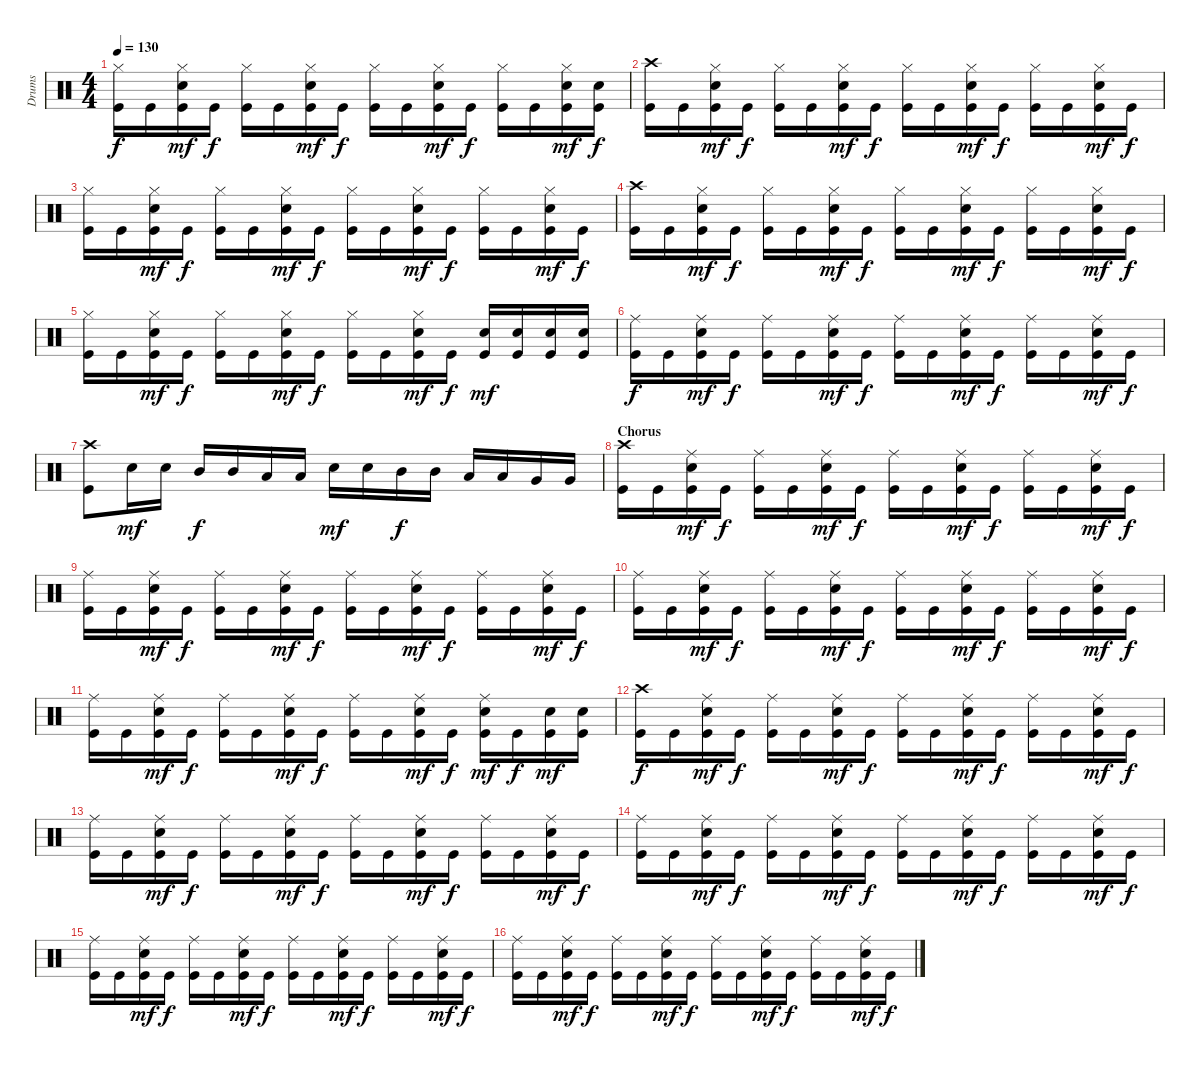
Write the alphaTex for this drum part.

\track ("Drums" "Drums") {instrument percussion}
\staff {score}
\articulation defaults
\ts (4 4)
\tempo 130
\clef neutral
\ks c
("Hi-Hat (closed)" "Kick (hit)").16{dy f} "Kick (hit)".16 ("Hi-Hat (closed)" "Snare (hit) 2" "Kick (hit)").16{dy mf} "Kick (hit)".16{dy f} ("Hi-Hat (closed)" "Kick (hit)").16 "Kick (hit)".16 ("Hi-Hat (closed)" "Snare (hit) 2" "Kick (hit)").16{dy mf} "Kick (hit)".16{dy f} ("Hi-Hat (closed)" "Kick (hit)").16 "Kick (hit)".16 ("Hi-Hat (closed)" "Snare (hit) 2" "Kick (hit)").16{dy mf} "Kick (hit)".16{dy f} ("Hi-Hat (closed)" "Kick (hit)").16 "Kick (hit)".16 ("Hi-Hat (closed)" "Snare (hit) 2" "Kick (hit)").16{dy mf} ("Snare (hit) 2" "Kick (hit)").16{dy f} |
("Crash high (hit)" "Kick (hit)").16 "Kick (hit)".16 ("Hi-Hat (closed)" "Snare (hit) 2" "Kick (hit)").16{dy mf} "Kick (hit)".16{dy f} ("Hi-Hat (closed)" "Kick (hit)").16 "Kick (hit)".16 ("Hi-Hat (closed)" "Snare (hit) 2" "Kick (hit)").16{dy mf} "Kick (hit)".16{dy f} ("Hi-Hat (closed)" "Kick (hit)").16 "Kick (hit)".16 ("Hi-Hat (closed)" "Snare (hit) 2" "Kick (hit)").16{dy mf} "Kick (hit)".16{dy f} ("Hi-Hat (closed)" "Kick (hit)").16 "Kick (hit)".16 ("Hi-Hat (closed)" "Snare (hit) 2" "Kick (hit)").16{dy mf} "Kick (hit)".16{dy f} |
("Hi-Hat (closed)" "Kick (hit)").16 "Kick (hit)".16 ("Hi-Hat (closed)" "Snare (hit) 2" "Kick (hit)").16{dy mf} "Kick (hit)".16{dy f} ("Hi-Hat (closed)" "Kick (hit)").16 "Kick (hit)".16 ("Hi-Hat (closed)" "Snare (hit) 2" "Kick (hit)").16{dy mf} "Kick (hit)".16{dy f} ("Hi-Hat (closed)" "Kick (hit)").16 "Kick (hit)".16 ("Hi-Hat (closed)" "Snare (hit) 2" "Kick (hit)").16{dy mf} "Kick (hit)".16{dy f} ("Hi-Hat (closed)" "Kick (hit)").16 "Kick (hit)".16 ("Hi-Hat (closed)" "Snare (hit) 2" "Kick (hit)").16{dy mf} "Kick (hit)".16{dy f} |
("Crash high (hit)" "Kick (hit)").16 "Kick (hit)".16 ("Hi-Hat (closed)" "Snare (hit) 2" "Kick (hit)").16{dy mf} "Kick (hit)".16{dy f} ("Hi-Hat (closed)" "Kick (hit)").16 "Kick (hit)".16 ("Hi-Hat (closed)" "Snare (hit) 2" "Kick (hit)").16{dy mf} "Kick (hit)".16{dy f} ("Hi-Hat (closed)" "Kick (hit)").16 "Kick (hit)".16 ("Hi-Hat (closed)" "Snare (hit) 2" "Kick (hit)").16{dy mf} "Kick (hit)".16{dy f} ("Hi-Hat (closed)" "Kick (hit)").16 "Kick (hit)".16 ("Hi-Hat (closed)" "Snare (hit) 2" "Kick (hit)").16{dy mf} "Kick (hit)".16{dy f} |
("Hi-Hat (closed)" "Kick (hit)").16 "Kick (hit)".16 ("Hi-Hat (closed)" "Snare (hit) 2" "Kick (hit)").16{dy mf} "Kick (hit)".16{dy f} ("Hi-Hat (closed)" "Kick (hit)").16 "Kick (hit)".16 ("Hi-Hat (closed)" "Snare (hit) 2" "Kick (hit)").16{dy mf} "Kick (hit)".16{dy f} ("Hi-Hat (closed)" "Kick (hit)").16 "Kick (hit)".16 ("Hi-Hat (closed)" "Snare (hit) 2" "Kick (hit)").16{dy mf} "Kick (hit)".16{dy f} ("Snare (hit) 2" "Kick (hit)").16{dy mf} ("Snare (hit) 2" "Kick (hit)").16 ("Snare (hit) 2" "Kick (hit)").16 ("Snare (hit) 2" "Kick (hit)").16 |
("Ride (middle)" "Kick (hit)").16{dy f} "Kick (hit)".16 ("Ride (middle)" "Snare (hit) 2" "Kick (hit)").16{dy mf} "Kick (hit)".16{dy f} ("Ride (middle)" "Kick (hit)").16 "Kick (hit)".16 ("Ride (middle)" "Snare (hit) 2" "Kick (hit)").16{dy mf} "Kick (hit)".16{dy f} ("Ride (middle)" "Kick (hit)").16 "Kick (hit)".16 ("Ride (middle)" "Snare (hit) 2" "Kick (hit)").16{dy mf} "Kick (hit)".16{dy f} ("Ride (middle)" "Kick (hit)").16 "Kick (hit)".16 ("Ride (middle)" "Snare (hit) 2" "Kick (hit)").16{dy mf} "Kick (hit)".16{dy f} |
("Crash high (hit)" "Kick (hit)").8 "Snare (hit) 2".16{dy mf} "Snare (hit) 2".16 "Mid Tom (hit)".16{dy f} "Mid Tom (hit)".16 "Low Tom (hit)".16 "Low Tom (hit)".16 "Snare (hit) 2".16{dy mf} "Snare (hit) 2".16 "Mid Tom (hit)".16{dy f} "Mid Tom (hit)".16 "Low Tom (hit)".16 "Low Tom (hit)".16 "Very Low Tom (hit)".16 "Very Low Tom (hit)".16 |
\section ("" "Chorus")
("Crash high (hit)" "Kick (hit)").16 "Kick (hit)".16 ("Ride (middle)" "Snare (hit) 2" "Kick (hit)").16{dy mf} "Kick (hit)".16{dy f} ("Ride (middle)" "Kick (hit)").16 "Kick (hit)".16 ("Ride (middle)" "Snare (hit) 2" "Kick (hit)").16{dy mf} "Kick (hit)".16{dy f} ("Ride (middle)" "Kick (hit)").16 "Kick (hit)".16 ("Ride (middle)" "Snare (hit) 2" "Kick (hit)").16{dy mf} "Kick (hit)".16{dy f} ("Ride (middle)" "Kick (hit)").16 "Kick (hit)".16 ("Ride (middle)" "Snare (hit) 2" "Kick (hit)").16{dy mf} "Kick (hit)".16{dy f} |
("Ride (middle)" "Kick (hit)").16 "Kick (hit)".16 ("Ride (middle)" "Snare (hit) 2" "Kick (hit)").16{dy mf} "Kick (hit)".16{dy f} ("Ride (middle)" "Kick (hit)").16 "Kick (hit)".16 ("Ride (middle)" "Snare (hit) 2" "Kick (hit)").16{dy mf} "Kick (hit)".16{dy f} ("Ride (middle)" "Kick (hit)").16 "Kick (hit)".16 ("Ride (middle)" "Snare (hit) 2" "Kick (hit)").16{dy mf} "Kick (hit)".16{dy f} ("Ride (middle)" "Kick (hit)").16 "Kick (hit)".16 ("Ride (middle)" "Snare (hit) 2" "Kick (hit)").16{dy mf} "Kick (hit)".16{dy f} |
("Ride (middle)" "Kick (hit)").16 "Kick (hit)".16 ("Ride (middle)" "Snare (hit) 2" "Kick (hit)").16{dy mf} "Kick (hit)".16{dy f} ("Ride (middle)" "Kick (hit)").16 "Kick (hit)".16 ("Ride (middle)" "Snare (hit) 2" "Kick (hit)").16{dy mf} "Kick (hit)".16{dy f} ("Ride (middle)" "Kick (hit)").16 "Kick (hit)".16 ("Ride (middle)" "Snare (hit) 2" "Kick (hit)").16{dy mf} "Kick (hit)".16{dy f} ("Ride (middle)" "Kick (hit)").16 "Kick (hit)".16 ("Ride (middle)" "Snare (hit) 2" "Kick (hit)").16{dy mf} "Kick (hit)".16{dy f} |
("Ride (middle)" "Kick (hit)").16 "Kick (hit)".16 ("Ride (middle)" "Snare (hit) 2" "Kick (hit)").16{dy mf} "Kick (hit)".16{dy f} ("Ride (middle)" "Kick (hit)").16 "Kick (hit)".16 ("Ride (middle)" "Snare (hit) 2" "Kick (hit)").16{dy mf} "Kick (hit)".16{dy f} ("Ride (middle)" "Kick (hit)").16 "Kick (hit)".16 ("Ride (middle)" "Snare (hit) 2" "Kick (hit)").16{dy mf} "Kick (hit)".16{dy f} ("Ride (middle)" "Snare (hit) 2" "Kick (hit)").16{dy mf} "Kick (hit)".16{dy f} ("Snare (hit) 2" "Kick (hit)").16{dy mf} ("Snare (hit) 2" "Kick (hit)").16 |
("Crash high (hit)" "Kick (hit)").16{dy f} "Kick (hit)".16 ("Ride (middle)" "Snare (hit) 2" "Kick (hit)").16{dy mf} "Kick (hit)".16{dy f} ("Ride (middle)" "Kick (hit)").16 "Kick (hit)".16 ("Ride (middle)" "Snare (hit) 2" "Kick (hit)").16{dy mf} "Kick (hit)".16{dy f} ("Ride (middle)" "Kick (hit)").16 "Kick (hit)".16 ("Ride (middle)" "Snare (hit) 2" "Kick (hit)").16{dy mf} "Kick (hit)".16{dy f} ("Ride (middle)" "Kick (hit)").16 "Kick (hit)".16 ("Ride (middle)" "Snare (hit) 2" "Kick (hit)").16{dy mf} "Kick (hit)".16{dy f} |
("Ride (middle)" "Kick (hit)").16 "Kick (hit)".16 ("Ride (middle)" "Snare (hit) 2" "Kick (hit)").16{dy mf} "Kick (hit)".16{dy f} ("Ride (middle)" "Kick (hit)").16 "Kick (hit)".16 ("Ride (middle)" "Snare (hit) 2" "Kick (hit)").16{dy mf} "Kick (hit)".16{dy f} ("Ride (middle)" "Kick (hit)").16 "Kick (hit)".16 ("Ride (middle)" "Snare (hit) 2" "Kick (hit)").16{dy mf} "Kick (hit)".16{dy f} ("Ride (middle)" "Kick (hit)").16 "Kick (hit)".16 ("Ride (middle)" "Snare (hit) 2" "Kick (hit)").16{dy mf} "Kick (hit)".16{dy f} |
("Ride (middle)" "Kick (hit)").16 "Kick (hit)".16 ("Ride (middle)" "Snare (hit) 2" "Kick (hit)").16{dy mf} "Kick (hit)".16{dy f} ("Ride (middle)" "Kick (hit)").16 "Kick (hit)".16 ("Ride (middle)" "Snare (hit) 2" "Kick (hit)").16{dy mf} "Kick (hit)".16{dy f} ("Ride (middle)" "Kick (hit)").16 "Kick (hit)".16 ("Ride (middle)" "Snare (hit) 2" "Kick (hit)").16{dy mf} "Kick (hit)".16{dy f} ("Ride (middle)" "Kick (hit)").16 "Kick (hit)".16 ("Ride (middle)" "Snare (hit) 2" "Kick (hit)").16{dy mf} "Kick (hit)".16{dy f} |
("Ride (middle)" "Kick (hit)").16 "Kick (hit)".16 ("Ride (middle)" "Snare (hit) 2" "Kick (hit)").16{dy mf} "Kick (hit)".16{dy f} ("Ride (middle)" "Kick (hit)").16 "Kick (hit)".16 ("Ride (middle)" "Snare (hit) 2" "Kick (hit)").16{dy mf} "Kick (hit)".16{dy f} ("Ride (middle)" "Kick (hit)").16 "Kick (hit)".16 ("Ride (middle)" "Snare (hit) 2" "Kick (hit)").16{dy mf} "Kick (hit)".16{dy f} ("Ride (middle)" "Kick (hit)").16 "Kick (hit)".16 ("Ride (middle)" "Snare (hit) 2" "Kick (hit)").16{dy mf} "Kick (hit)".16{dy f} |
("Ride (middle)" "Kick (hit)").16 "Kick (hit)".16 ("Ride (middle)" "Snare (hit) 2" "Kick (hit)").16{dy mf} "Kick (hit)".16{dy f} ("Ride (middle)" "Kick (hit)").16 "Kick (hit)".16 ("Ride (middle)" "Snare (hit) 2" "Kick (hit)").16{dy mf} "Kick (hit)".16{dy f} ("Ride (middle)" "Kick (hit)").16 "Kick (hit)".16 ("Ride (middle)" "Snare (hit) 2" "Kick (hit)").16{dy mf} "Kick (hit)".16{dy f} ("Ride (middle)" "Kick (hit)").16 "Kick (hit)".16 ("Ride (middle)" "Snare (hit) 2" "Kick (hit)").16{dy mf} "Kick (hit)".16{dy f}
